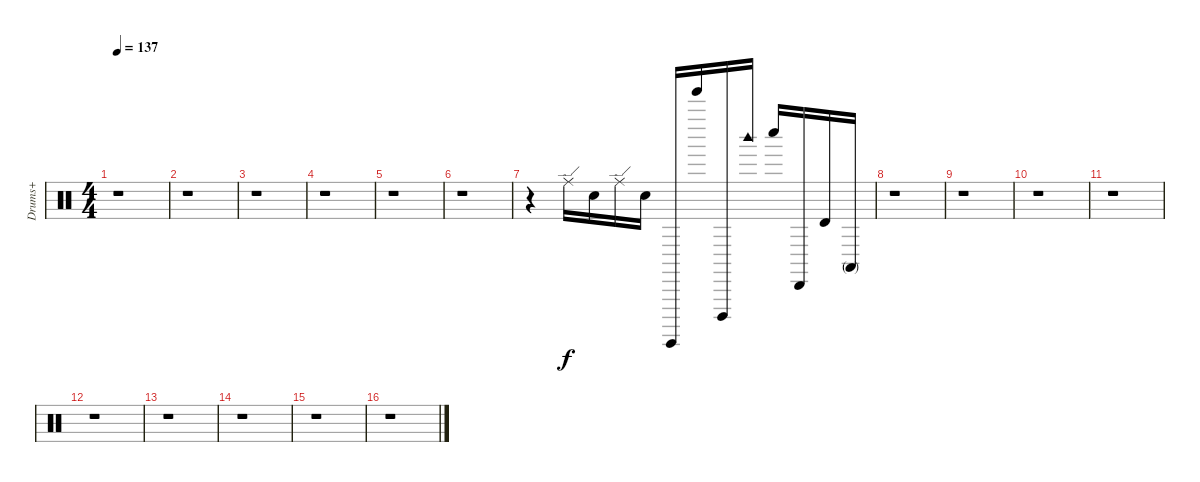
\track ("Drums+" "Drums+") {instrument percussion}
\staff {score}
\articulation defaults
\ts (4 4)
\tempo 137
\clef neutral
\ks c
r.1{dy f} |
r.1 |
r.1 |
r.1 |
r.1 |
r.1 |
r.4 "Ride (edge)".16 "Snare (hit)".16 "Ride (edge)".16 "Snare (hit)".16 "Surdo (hit)".16 "Tinkle Bell (hit)".16 "Cuica (open)".16 "Woodblock high (hit)".16 "Whistle low (hit)".16 "Cabasa (hit)".16 "Timbale high (hit)".16 "Conga high (mute)".16 |
r.1 |
r.1 |
r.1 |
r.1 |
r.1 |
r.1 |
r.1 |
r.1 |
r.1
